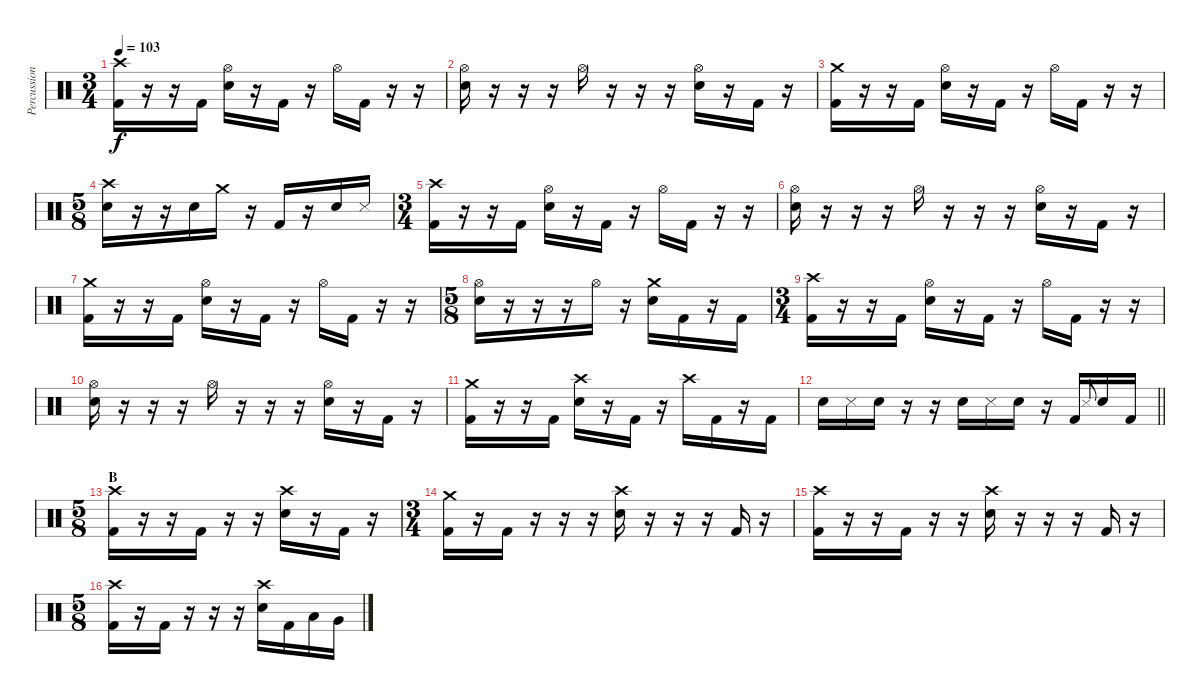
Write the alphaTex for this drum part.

\track ("Percussion" "Percussion") {instrument percussion}
\staff {score}
\articulation defaults
\ts (3 4)
\tempo 103
\clef neutral
\ks c
("Crash high (hit)" "Kick (hit) 2").16{dy f} r.16 r.16 "Kick (hit) 2".16 ("Hi-Hat (open)" "Snare (hit) 2").16 r.16 "Kick (hit) 2".16 r.16 "Hi-Hat (open)".16 "Kick (hit) 2".16 r.16 r.16 |
("Hi-Hat (open)" "Snare (hit) 2").16 r.16 r.16 r.16 "Hi-Hat (open)".16 r.16 r.16 r.16 ("Hi-Hat (open)" "Snare (hit) 2").16 r.16 "Kick (hit) 2".16 r.16 |
("Crash medium (hit)" "Kick (hit) 2").16 r.16 r.16 "Kick (hit) 2".16 ("Hi-Hat (open)" "Snare (hit) 2").16 r.16 "Kick (hit) 2".16 r.16 "Hi-Hat (open)".16 "Kick (hit) 2".16 r.16 r.16 |
\ts (5 8)
("Crash high (hit)" "Snare (hit) 2").16 r.16 r.16 "Snare (hit) 2".16 "Crash medium (hit)".16 r.16 "Kick (hit) 2".16 r.16 "Snare (hit) 2".16 "Metronome (hit)".16 |
\ts (3 4)
("Crash high (hit)" "Kick (hit) 2").16 r.16 r.16 "Kick (hit) 2".16 ("Hi-Hat (open)" "Snare (hit) 2").16 r.16 "Kick (hit) 2".16 r.16 "Hi-Hat (open)".16 "Kick (hit) 2".16 r.16 r.16 |
("Hi-Hat (open)" "Snare (hit) 2").16 r.16 r.16 r.16 "Hi-Hat (open)".16 r.16 r.16 r.16 ("Hi-Hat (open)" "Snare (hit) 2").16 r.16 "Kick (hit) 2".16 r.16 |
("Crash medium (hit)" "Kick (hit) 2").16 r.16 r.16 "Kick (hit) 2".16 ("Hi-Hat (open)" "Snare (hit) 2").16 r.16 "Kick (hit) 2".16 r.16 "Hi-Hat (open)".16 "Kick (hit) 2".16 r.16 r.16 |
\ts (5 8)
("Hi-Hat (open)" "Snare (hit) 2").16 r.16 r.16 r.16 "Hi-Hat (open)".16 r.16 ("Crash medium (hit)" "Snare (hit) 2").16 "Kick (hit) 2".16 r.16 "Kick (hit) 2".16 |
\ts (3 4)
("Crash high (hit)" "Kick (hit) 2").16 r.16 r.16 "Kick (hit) 2".16 ("Hi-Hat (open)" "Snare (hit) 2").16 r.16 "Kick (hit) 2".16 r.16 "Hi-Hat (open)".16 "Kick (hit) 2".16 r.16 r.16 |
("Hi-Hat (open)" "Snare (hit) 2").16 r.16 r.16 r.16 "Hi-Hat (open)".16 r.16 r.16 r.16 ("Hi-Hat (open)" "Snare (hit) 2").16 r.16 "Kick (hit) 2".16 r.16 |
("Crash medium (hit)" "Kick (hit) 2").16 r.16 r.16 "Kick (hit) 2".16 ("Crash high (hit)" "Snare (hit) 2").16 r.16 "Kick (hit) 2".16 r.16 "Crash high (hit)".16 "Kick (hit) 2".16 r.16 "Kick (hit) 2".16 |
\barLineRight lightlight "Snare (hit) 2".16 "Metronome (hit)".16 "Snare (hit) 2".16
r.16 r.16 "Snare (hit) 2".16 "Metronome (hit)".16 "Snare (hit) 2".16 r.16 "Kick (hit) 2".16 "Metronome (hit)".8{gr onbeat} "Snare (hit) 2".16 "Kick (hit) 2".16 |
\ts (5 8)
\section ("" "B")
("Crash high (hit)" "Kick (hit) 2").16 r.16 r.16 "Kick (hit) 2".16 r.16 r.16 ("Crash high (hit)" "Snare (hit) 2").16 r.16 "Kick (hit) 2".16 r.16 |
\ts (3 4)
("Crash medium (hit)" "Kick (hit) 2").16 r.16 "Kick (hit) 2".16 r.16 r.16 r.16 ("Crash high (hit)" "Snare (hit) 2").16 r.16 r.16 r.16 "Kick (hit) 2".16 r.16 |
("Crash high (hit)" "Kick (hit) 2").16 r.16 r.16 "Kick (hit) 2".16 r.16 r.16 ("Crash high (hit)" "Snare (hit) 2").16 r.16 r.16 r.16 "Kick (hit) 2".16 r.16 |
\ts (5 8)
("Crash high (hit)" "Kick (hit) 2").16 r.16 "Kick (hit) 2".16 r.16 r.16 r.16 ("Crash high (hit)" "Snare (hit) 2").16 "Kick (hit) 2".16 "Low Tom (hit)".16 "Very Low Tom (hit)".16
